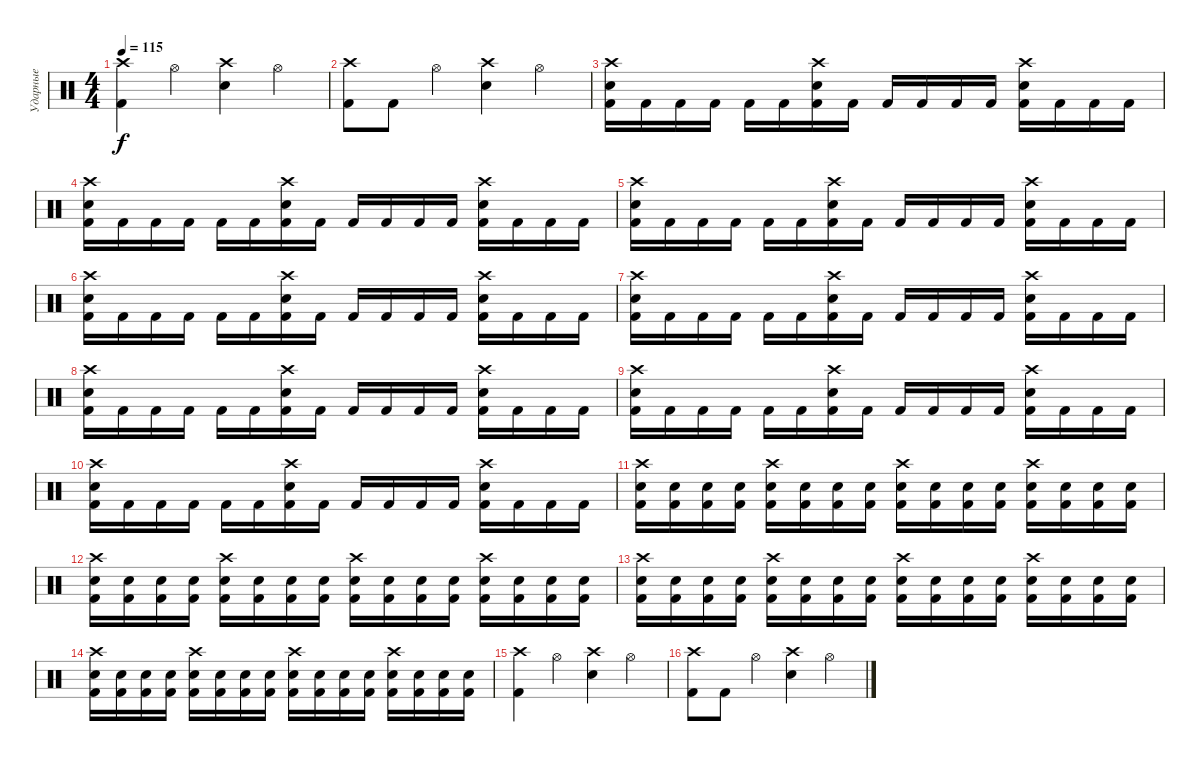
\track ("Ударные" "Ударные") {mute instrument percussion}
\staff {score}
\articulation defaults
\ts (4 4)
\tempo 115
\clef neutral
\ks c
("Crash high (hit)" "Kick (hit) 2").4{dy f} "Hi-Hat (open)".4 ("Crash high (hit)" "Electric Snare (hit)").4 "Hi-Hat (open)".4 |
("Crash high (hit)" "Kick (hit) 2").8 "Kick (hit) 2".8 "Hi-Hat (open)".4 ("Crash high (hit)" "Electric Snare (hit)").4 "Hi-Hat (open)".4 |
("Crash high (hit)" "Electric Snare (hit)" "Kick (hit) 2").16 "Kick (hit) 2".16 "Kick (hit) 2".16 "Kick (hit) 2".16 "Kick (hit) 2".16 "Kick (hit) 2".16 ("Crash high (hit)" "Electric Snare (hit)" "Kick (hit) 2").16 "Kick (hit) 2".16 "Kick (hit) 2".16 "Kick (hit) 2".16 "Kick (hit) 2".16 "Kick (hit) 2".16 ("Crash high (hit)" "Electric Snare (hit)" "Kick (hit) 2").16 "Kick (hit) 2".16 "Kick (hit) 2".16 "Kick (hit) 2".16 |
("Crash high (hit)" "Electric Snare (hit)" "Kick (hit) 2").16 "Kick (hit) 2".16 "Kick (hit) 2".16 "Kick (hit) 2".16 "Kick (hit) 2".16 "Kick (hit) 2".16 ("Crash high (hit)" "Electric Snare (hit)" "Kick (hit) 2").16 "Kick (hit) 2".16 "Kick (hit) 2".16 "Kick (hit) 2".16 "Kick (hit) 2".16 "Kick (hit) 2".16 ("Crash high (hit)" "Electric Snare (hit)" "Kick (hit) 2").16 "Kick (hit) 2".16 "Kick (hit) 2".16 "Kick (hit) 2".16 |
("Crash high (hit)" "Electric Snare (hit)" "Kick (hit) 2").16 "Kick (hit) 2".16 "Kick (hit) 2".16 "Kick (hit) 2".16 "Kick (hit) 2".16 "Kick (hit) 2".16 ("Crash high (hit)" "Electric Snare (hit)" "Kick (hit) 2").16 "Kick (hit) 2".16 "Kick (hit) 2".16 "Kick (hit) 2".16 "Kick (hit) 2".16 "Kick (hit) 2".16 ("Crash high (hit)" "Electric Snare (hit)" "Kick (hit) 2").16 "Kick (hit) 2".16 "Kick (hit) 2".16 "Kick (hit) 2".16 |
("Crash high (hit)" "Electric Snare (hit)" "Kick (hit) 2").16 "Kick (hit) 2".16 "Kick (hit) 2".16 "Kick (hit) 2".16 "Kick (hit) 2".16 "Kick (hit) 2".16 ("Crash high (hit)" "Electric Snare (hit)" "Kick (hit) 2").16 "Kick (hit) 2".16 "Kick (hit) 2".16 "Kick (hit) 2".16 "Kick (hit) 2".16 "Kick (hit) 2".16 ("Crash high (hit)" "Electric Snare (hit)" "Kick (hit) 2").16 "Kick (hit) 2".16 "Kick (hit) 2".16 "Kick (hit) 2".16 |
("Crash high (hit)" "Electric Snare (hit)" "Kick (hit) 2").16 "Kick (hit) 2".16 "Kick (hit) 2".16 "Kick (hit) 2".16 "Kick (hit) 2".16 "Kick (hit) 2".16 ("Crash high (hit)" "Electric Snare (hit)" "Kick (hit) 2").16 "Kick (hit) 2".16 "Kick (hit) 2".16 "Kick (hit) 2".16 "Kick (hit) 2".16 "Kick (hit) 2".16 ("Crash high (hit)" "Electric Snare (hit)" "Kick (hit) 2").16 "Kick (hit) 2".16 "Kick (hit) 2".16 "Kick (hit) 2".16 |
("Crash high (hit)" "Electric Snare (hit)" "Kick (hit) 2").16 "Kick (hit) 2".16 "Kick (hit) 2".16 "Kick (hit) 2".16 "Kick (hit) 2".16 "Kick (hit) 2".16 ("Crash high (hit)" "Electric Snare (hit)" "Kick (hit) 2").16 "Kick (hit) 2".16 "Kick (hit) 2".16 "Kick (hit) 2".16 "Kick (hit) 2".16 "Kick (hit) 2".16 ("Crash high (hit)" "Electric Snare (hit)" "Kick (hit) 2").16 "Kick (hit) 2".16 "Kick (hit) 2".16 "Kick (hit) 2".16 |
("Crash high (hit)" "Electric Snare (hit)" "Kick (hit) 2").16 "Kick (hit) 2".16 "Kick (hit) 2".16 "Kick (hit) 2".16 "Kick (hit) 2".16 "Kick (hit) 2".16 ("Crash high (hit)" "Electric Snare (hit)" "Kick (hit) 2").16 "Kick (hit) 2".16 "Kick (hit) 2".16 "Kick (hit) 2".16 "Kick (hit) 2".16 "Kick (hit) 2".16 ("Crash high (hit)" "Electric Snare (hit)" "Kick (hit) 2").16 "Kick (hit) 2".16 "Kick (hit) 2".16 "Kick (hit) 2".16 |
("Crash high (hit)" "Electric Snare (hit)" "Kick (hit) 2").16 "Kick (hit) 2".16 "Kick (hit) 2".16 "Kick (hit) 2".16 "Kick (hit) 2".16 "Kick (hit) 2".16 ("Crash high (hit)" "Electric Snare (hit)" "Kick (hit) 2").16 "Kick (hit) 2".16 "Kick (hit) 2".16 "Kick (hit) 2".16 "Kick (hit) 2".16 "Kick (hit) 2".16 ("Crash high (hit)" "Electric Snare (hit)" "Kick (hit) 2").16 "Kick (hit) 2".16 "Kick (hit) 2".16 "Kick (hit) 2".16 |
("Crash high (hit)" "Electric Snare (hit)" "Kick (hit) 2").16 ("Electric Snare (hit)" "Kick (hit) 2").16 ("Electric Snare (hit)" "Kick (hit) 2").16 ("Electric Snare (hit)" "Kick (hit) 2").16 ("Crash high (hit)" "Electric Snare (hit)" "Kick (hit) 2").16 ("Electric Snare (hit)" "Kick (hit) 2").16 ("Electric Snare (hit)" "Kick (hit) 2").16 ("Electric Snare (hit)" "Kick (hit) 2").16 ("Crash high (hit)" "Electric Snare (hit)" "Kick (hit) 2").16 ("Electric Snare (hit)" "Kick (hit) 2").16 ("Electric Snare (hit)" "Kick (hit) 2").16 ("Electric Snare (hit)" "Kick (hit) 2").16 ("Crash high (hit)" "Electric Snare (hit)" "Kick (hit) 2").16 ("Electric Snare (hit)" "Kick (hit) 2").16 ("Electric Snare (hit)" "Kick (hit) 2").16 ("Electric Snare (hit)" "Kick (hit) 2").16 |
("Crash high (hit)" "Electric Snare (hit)" "Kick (hit) 2").16 ("Electric Snare (hit)" "Kick (hit) 2").16 ("Electric Snare (hit)" "Kick (hit) 2").16 ("Electric Snare (hit)" "Kick (hit) 2").16 ("Crash high (hit)" "Electric Snare (hit)" "Kick (hit) 2").16 ("Electric Snare (hit)" "Kick (hit) 2").16 ("Electric Snare (hit)" "Kick (hit) 2").16 ("Electric Snare (hit)" "Kick (hit) 2").16 ("Crash high (hit)" "Electric Snare (hit)" "Kick (hit) 2").16 ("Electric Snare (hit)" "Kick (hit) 2").16 ("Electric Snare (hit)" "Kick (hit) 2").16 ("Electric Snare (hit)" "Kick (hit) 2").16 ("Crash high (hit)" "Electric Snare (hit)" "Kick (hit) 2").16 ("Electric Snare (hit)" "Kick (hit) 2").16 ("Electric Snare (hit)" "Kick (hit) 2").16 ("Electric Snare (hit)" "Kick (hit) 2").16 |
("Crash high (hit)" "Electric Snare (hit)" "Kick (hit) 2").16 ("Electric Snare (hit)" "Kick (hit) 2").16 ("Electric Snare (hit)" "Kick (hit) 2").16 ("Electric Snare (hit)" "Kick (hit) 2").16 ("Crash high (hit)" "Electric Snare (hit)" "Kick (hit) 2").16 ("Electric Snare (hit)" "Kick (hit) 2").16 ("Electric Snare (hit)" "Kick (hit) 2").16 ("Electric Snare (hit)" "Kick (hit) 2").16 ("Crash high (hit)" "Electric Snare (hit)" "Kick (hit) 2").16 ("Electric Snare (hit)" "Kick (hit) 2").16 ("Electric Snare (hit)" "Kick (hit) 2").16 ("Electric Snare (hit)" "Kick (hit) 2").16 ("Crash high (hit)" "Electric Snare (hit)" "Kick (hit) 2").16 ("Electric Snare (hit)" "Kick (hit) 2").16 ("Electric Snare (hit)" "Kick (hit) 2").16 ("Electric Snare (hit)" "Kick (hit) 2").16 |
("Crash high (hit)" "Electric Snare (hit)" "Kick (hit) 2").16 ("Electric Snare (hit)" "Kick (hit) 2").16 ("Electric Snare (hit)" "Kick (hit) 2").16 ("Electric Snare (hit)" "Kick (hit) 2").16 ("Crash high (hit)" "Electric Snare (hit)" "Kick (hit) 2").16 ("Electric Snare (hit)" "Kick (hit) 2").16 ("Electric Snare (hit)" "Kick (hit) 2").16 ("Electric Snare (hit)" "Kick (hit) 2").16 ("Crash high (hit)" "Electric Snare (hit)" "Kick (hit) 2").16 ("Electric Snare (hit)" "Kick (hit) 2").16 ("Electric Snare (hit)" "Kick (hit) 2").16 ("Electric Snare (hit)" "Kick (hit) 2").16 ("Crash high (hit)" "Electric Snare (hit)" "Kick (hit) 2").16 ("Electric Snare (hit)" "Kick (hit) 2").16 ("Electric Snare (hit)" "Kick (hit) 2").16 ("Electric Snare (hit)" "Kick (hit) 2").16 |
("Crash high (hit)" "Kick (hit) 2").4 "Hi-Hat (open)".4 ("Crash high (hit)" "Electric Snare (hit)").4 "Hi-Hat (open)".4 |
("Crash high (hit)" "Kick (hit) 2").8 "Kick (hit) 2".8 "Hi-Hat (open)".4 ("Crash high (hit)" "Electric Snare (hit)").4 "Hi-Hat (open)".4
